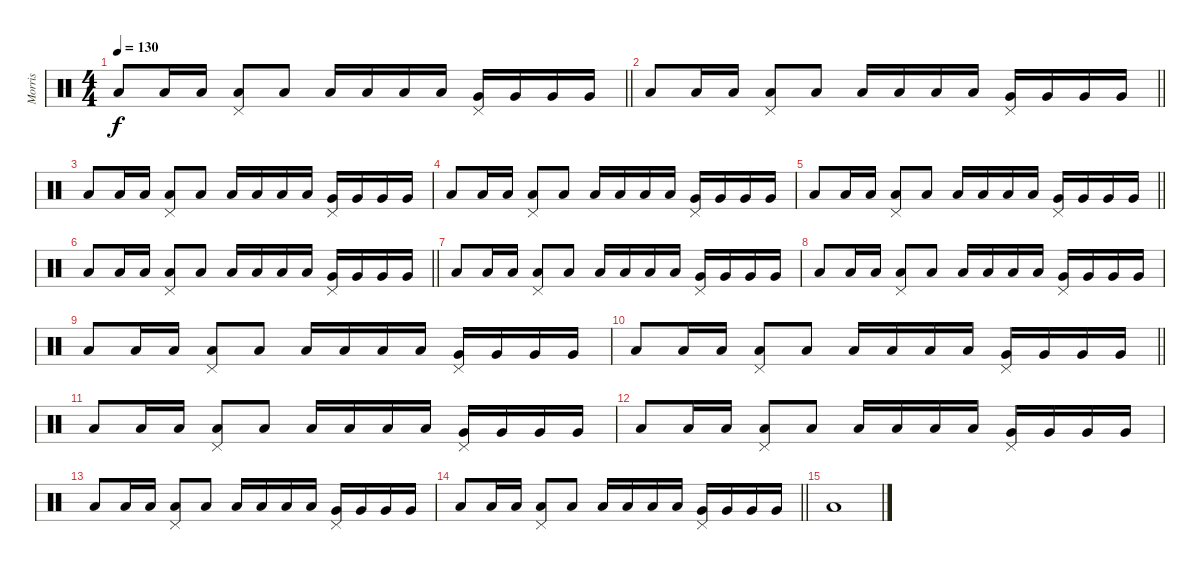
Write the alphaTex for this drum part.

\track ("Morris" "Morris") {instrument percussion}
\staff {score}
\articulation defaults
\ts (4 4)
\tempo 130
\clef neutral
\barLineRight lightlight
\ks c "Low Floor Tom (hit)".8{dy f} "Low Floor Tom (hit)".16 "Low Floor Tom (hit)".16
("Low Tom (hit)" "Pedal Hi-Hat (hit)").8 "Low Floor Tom (hit)".8 "Low Tom (hit)".16 "Low Tom (hit)".16 "Low Tom (hit)".16 "Low Tom (hit)".16 ("Very Low Tom (hit)" "Pedal Hi-Hat (hit)").16 "Very Low Tom (hit)".16 "Very Low Tom (hit)".16 "Very Low Tom (hit)".16 |
\barLineRight lightlight "Low Floor Tom (hit)".8 "Low Floor Tom (hit)".16 "Low Floor Tom (hit)".16
("Low Tom (hit)" "Pedal Hi-Hat (hit)").8 "Low Floor Tom (hit)".8 "Low Tom (hit)".16 "Low Tom (hit)".16 "Low Tom (hit)".16 "Low Tom (hit)".16 ("Very Low Tom (hit)" "Pedal Hi-Hat (hit)").16 "Very Low Tom (hit)".16 "Very Low Tom (hit)".16 "Very Low Tom (hit)".16 |
"Low Floor Tom (hit)".8 "Low Floor Tom (hit)".16 "Low Floor Tom (hit)".16 ("Low Tom (hit)" "Pedal Hi-Hat (hit)").8 "Low Floor Tom (hit)".8 "Low Tom (hit)".16 "Low Tom (hit)".16 "Low Tom (hit)".16 "Low Tom (hit)".16 ("Very Low Tom (hit)" "Pedal Hi-Hat (hit)").16 "Very Low Tom (hit)".16 "Very Low Tom (hit)".16 "Very Low Tom (hit)".16 |
"Low Floor Tom (hit)".8 "Low Floor Tom (hit)".16 "Low Floor Tom (hit)".16 ("Low Tom (hit)" "Pedal Hi-Hat (hit)").8 "Low Floor Tom (hit)".8 "Low Tom (hit)".16 "Low Tom (hit)".16 "Low Tom (hit)".16 "Low Tom (hit)".16 ("Very Low Tom (hit)" "Pedal Hi-Hat (hit)").16 "Very Low Tom (hit)".16 "Very Low Tom (hit)".16 "Very Low Tom (hit)".16 |
\barLineRight lightlight "Low Floor Tom (hit)".8 "Low Floor Tom (hit)".16 "Low Floor Tom (hit)".16
("Low Tom (hit)" "Pedal Hi-Hat (hit)").8 "Low Floor Tom (hit)".8 "Low Tom (hit)".16 "Low Tom (hit)".16 "Low Tom (hit)".16 "Low Tom (hit)".16 ("Very Low Tom (hit)" "Pedal Hi-Hat (hit)").16 "Very Low Tom (hit)".16 "Very Low Tom (hit)".16 "Very Low Tom (hit)".16 |
\barLineRight lightlight "Low Floor Tom (hit)".8 "Low Floor Tom (hit)".16 "Low Floor Tom (hit)".16
("Low Tom (hit)" "Pedal Hi-Hat (hit)").8 "Low Floor Tom (hit)".8 "Low Tom (hit)".16 "Low Tom (hit)".16 "Low Tom (hit)".16 "Low Tom (hit)".16 ("Very Low Tom (hit)" "Pedal Hi-Hat (hit)").16 "Very Low Tom (hit)".16 "Very Low Tom (hit)".16 "Very Low Tom (hit)".16 |
"Low Floor Tom (hit)".8 "Low Floor Tom (hit)".16 "Low Floor Tom (hit)".16 ("Low Tom (hit)" "Pedal Hi-Hat (hit)").8 "Low Floor Tom (hit)".8 "Low Tom (hit)".16 "Low Tom (hit)".16 "Low Tom (hit)".16 "Low Tom (hit)".16 ("Very Low Tom (hit)" "Pedal Hi-Hat (hit)").16 "Very Low Tom (hit)".16 "Very Low Tom (hit)".16 "Very Low Tom (hit)".16 |
"Low Floor Tom (hit)".8 "Low Floor Tom (hit)".16 "Low Floor Tom (hit)".16 ("Low Tom (hit)" "Pedal Hi-Hat (hit)").8 "Low Floor Tom (hit)".8 "Low Tom (hit)".16 "Low Tom (hit)".16 "Low Tom (hit)".16 "Low Tom (hit)".16 ("Very Low Tom (hit)" "Pedal Hi-Hat (hit)").16 "Very Low Tom (hit)".16 "Very Low Tom (hit)".16 "Very Low Tom (hit)".16 |
"Low Floor Tom (hit)".8 "Low Floor Tom (hit)".16 "Low Floor Tom (hit)".16 ("Low Tom (hit)" "Pedal Hi-Hat (hit)").8 "Low Floor Tom (hit)".8 "Low Tom (hit)".16 "Low Tom (hit)".16 "Low Tom (hit)".16 "Low Tom (hit)".16 ("Very Low Tom (hit)" "Pedal Hi-Hat (hit)").16 "Very Low Tom (hit)".16 "Very Low Tom (hit)".16 "Very Low Tom (hit)".16 |
\barLineRight lightlight "Low Floor Tom (hit)".8 "Low Floor Tom (hit)".16 "Low Floor Tom (hit)".16
("Low Tom (hit)" "Pedal Hi-Hat (hit)").8 "Low Floor Tom (hit)".8 "Low Tom (hit)".16 "Low Tom (hit)".16 "Low Tom (hit)".16 "Low Tom (hit)".16 ("Very Low Tom (hit)" "Pedal Hi-Hat (hit)").16 "Very Low Tom (hit)".16 "Very Low Tom (hit)".16 "Very Low Tom (hit)".16 |
"Low Floor Tom (hit)".8 "Low Floor Tom (hit)".16 "Low Floor Tom (hit)".16 ("Low Tom (hit)" "Pedal Hi-Hat (hit)").8 "Low Floor Tom (hit)".8 "Low Tom (hit)".16 "Low Tom (hit)".16 "Low Tom (hit)".16 "Low Tom (hit)".16 ("Very Low Tom (hit)" "Pedal Hi-Hat (hit)").16 "Very Low Tom (hit)".16 "Very Low Tom (hit)".16 "Very Low Tom (hit)".16 |
"Low Floor Tom (hit)".8 "Low Floor Tom (hit)".16 "Low Floor Tom (hit)".16 ("Low Tom (hit)" "Pedal Hi-Hat (hit)").8 "Low Floor Tom (hit)".8 "Low Tom (hit)".16 "Low Tom (hit)".16 "Low Tom (hit)".16 "Low Tom (hit)".16 ("Very Low Tom (hit)" "Pedal Hi-Hat (hit)").16 "Very Low Tom (hit)".16 "Very Low Tom (hit)".16 "Very Low Tom (hit)".16 |
"Low Floor Tom (hit)".8 "Low Floor Tom (hit)".16 "Low Floor Tom (hit)".16 ("Low Tom (hit)" "Pedal Hi-Hat (hit)").8 "Low Floor Tom (hit)".8 "Low Tom (hit)".16 "Low Tom (hit)".16 "Low Tom (hit)".16 "Low Tom (hit)".16 ("Very Low Tom (hit)" "Pedal Hi-Hat (hit)").16 "Very Low Tom (hit)".16 "Very Low Tom (hit)".16 "Very Low Tom (hit)".16 |
\barLineRight lightlight "Low Floor Tom (hit)".8 "Low Floor Tom (hit)".16 "Low Floor Tom (hit)".16
("Low Tom (hit)" "Pedal Hi-Hat (hit)").8 "Low Floor Tom (hit)".8 "Low Tom (hit)".16 "Low Tom (hit)".16 "Low Tom (hit)".16 "Low Tom (hit)".16 ("Very Low Tom (hit)" "Pedal Hi-Hat (hit)").16 "Very Low Tom (hit)".16 "Very Low Tom (hit)".16 "Very Low Tom (hit)".16 |
"Low Floor Tom (hit)".1
